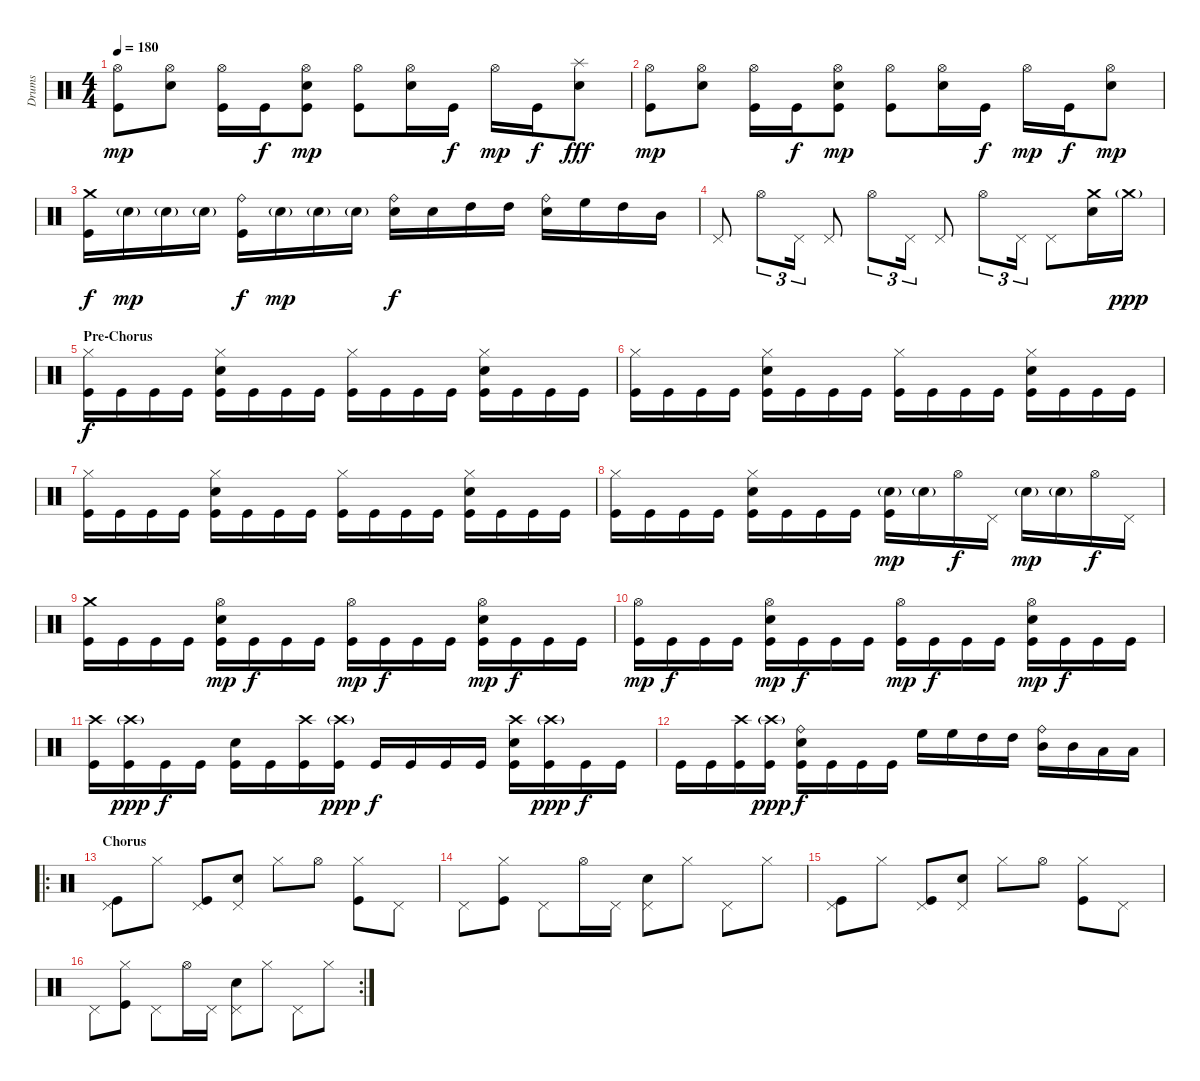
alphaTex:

\track ("Drums" "Drums") {instrument percussion}
\staff {score}
\articulation defaults
\ts (4 4)
\tempo 180
\clef neutral
\ks c
("Hi-Hat (open)" "Kick (hit)").8{dy mp} ("Hi-Hat (open)" "Electric Snare (hit)").8 ("Hi-Hat (open)" "Kick (hit)").16 "Kick (hit)".16{dy f} ("Hi-Hat (open)" "Electric Snare (hit)" "Kick (hit)").8{dy mp} ("Hi-Hat (open)" "Kick (hit)").8 ("Hi-Hat (open)" "Electric Snare (hit)").16 "Kick (hit)".16{dy f} "Hi-Hat (open)".16{dy mp} "Kick (hit)".16{dy f} ("Splash (hit)" "Electric Snare (hit)").8{dy fff} |
("Hi-Hat (open)" "Kick (hit)").8{dy mp} ("Hi-Hat (open)" "Electric Snare (hit)").8 ("Hi-Hat (open)" "Kick (hit)").16 "Kick (hit)".16{dy f} ("Hi-Hat (open)" "Electric Snare (hit)" "Kick (hit)").8{dy mp} ("Hi-Hat (open)" "Kick (hit)").8 ("Hi-Hat (open)" "Electric Snare (hit)").16 "Kick (hit)".16{dy f} "Hi-Hat (open)".16{dy mp} "Kick (hit)".16{dy f} ("Hi-Hat (open)" "Electric Snare (hit)").8{dy mp} |
("Crash medium (hit)" "Kick (hit)").16{dy f} "Electric Snare (hit)"{g}.16{dy mp} "Electric Snare (hit)"{g}.16 "Electric Snare (hit)"{g}.16 ("Ride (bell)" "Kick (hit)").16{dy f} "Electric Snare (hit)"{g}.16{dy mp} "Electric Snare (hit)"{g}.16 "Electric Snare (hit)"{g}.16 ("Ride (bell)" "Electric Snare (hit)").16{dy f} "Electric Snare (hit)".16 "High Tom (hit)".16 "High Tom (hit)".16 ("Ride (bell)" "Electric Snare (hit)").16 "High Floor Tom (hit)".16 "High Tom (hit)".16 "Mid Tom (hit)".16 |
"Pedal Hi-Hat (hit)".8 "Hi-Hat (open)".8{tu (3 2)} "Pedal Hi-Hat (hit)".16{tu (3 2)} "Pedal Hi-Hat (hit)".8 "Hi-Hat (open)".8{tu (3 2)} "Pedal Hi-Hat (hit)".16{tu (3 2)} "Pedal Hi-Hat (hit)".8 "Hi-Hat (open)".8{tu (3 2)} "Pedal Hi-Hat (hit)".16{tu (3 2)} "Pedal Hi-Hat (hit)".8 ("Crash medium (hit)" "Electric Snare (hit)").16 "Crash medium (hit)"{g}.16{dy ppp} |
\section ("" "Pre-Chorus")
("Hi-Hat (closed)" "Kick (hit)").16{dy f} "Kick (hit)".16 "Kick (hit)".16 "Kick (hit)".16 ("Hi-Hat (closed)" "Electric Snare (hit)" "Kick (hit)").16 "Kick (hit)".16 "Kick (hit)".16 "Kick (hit)".16 ("Hi-Hat (closed)" "Kick (hit)").16 "Kick (hit)".16 "Kick (hit)".16 "Kick (hit)".16 ("Hi-Hat (closed)" "Electric Snare (hit)" "Kick (hit)").16 "Kick (hit)".16 "Kick (hit)".16 "Kick (hit)".16 |
("Hi-Hat (closed)" "Kick (hit)").16 "Kick (hit)".16 "Kick (hit)".16 "Kick (hit)".16 ("Hi-Hat (closed)" "Electric Snare (hit)" "Kick (hit)").16 "Kick (hit)".16 "Kick (hit)".16 "Kick (hit)".16 ("Hi-Hat (closed)" "Kick (hit)").16 "Kick (hit)".16 "Kick (hit)".16 "Kick (hit)".16 ("Hi-Hat (closed)" "Electric Snare (hit)" "Kick (hit)").16 "Kick (hit)".16 "Kick (hit)".16 "Kick (hit)".16 |
("Hi-Hat (closed)" "Kick (hit)").16 "Kick (hit)".16 "Kick (hit)".16 "Kick (hit)".16 ("Hi-Hat (closed)" "Electric Snare (hit)" "Kick (hit)").16 "Kick (hit)".16 "Kick (hit)".16 "Kick (hit)".16 ("Hi-Hat (closed)" "Kick (hit)").16 "Kick (hit)".16 "Kick (hit)".16 "Kick (hit)".16 ("Hi-Hat (closed)" "Electric Snare (hit)" "Kick (hit)").16 "Kick (hit)".16 "Kick (hit)".16 "Kick (hit)".16 |
("Hi-Hat (closed)" "Kick (hit)").16 "Kick (hit)".16 "Kick (hit)".16 "Kick (hit)".16 ("Hi-Hat (closed)" "Electric Snare (hit)" "Kick (hit)").16 "Kick (hit)".16 "Kick (hit)".16 "Kick (hit)".16 ("Electric Snare (hit)"{g} "Kick (hit)").16{dy mp} "Electric Snare (hit)"{g}.16 "Hi-Hat (open)".16{dy f} "Pedal Hi-Hat (hit)".16 "Electric Snare (hit)"{g}.16{dy mp} "Electric Snare (hit)"{g}.16 "Hi-Hat (open)".16{dy f} "Pedal Hi-Hat (hit)".16 |
("Crash medium (hit)" "Kick (hit)").16 "Kick (hit)".16 "Kick (hit)".16 "Kick (hit)".16 ("Hi-Hat (open)" "Electric Snare (hit)" "Kick (hit)").16{dy mp} "Kick (hit)".16{dy f} "Kick (hit)".16 "Kick (hit)".16 ("Hi-Hat (open)" "Kick (hit)").16{dy mp} "Kick (hit)".16{dy f} "Kick (hit)".16 "Kick (hit)".16 ("Hi-Hat (open)" "Electric Snare (hit)" "Kick (hit)").16{dy mp} "Kick (hit)".16{dy f} "Kick (hit)".16 "Kick (hit)".16 |
("Hi-Hat (open)" "Kick (hit)").16{dy mp} "Kick (hit)".16{dy f} "Kick (hit)".16 "Kick (hit)".16 ("Hi-Hat (open)" "Electric Snare (hit)" "Kick (hit)").16{dy mp} "Kick (hit)".16{dy f} "Kick (hit)".16 "Kick (hit)".16 ("Hi-Hat (open)" "Kick (hit)").16{dy mp} "Kick (hit)".16{dy f} "Kick (hit)".16 "Kick (hit)".16 ("Hi-Hat (open)" "Electric Snare (hit)" "Kick (hit)").16{dy mp} "Kick (hit)".16{dy f} "Kick (hit)".16 "Kick (hit)".16 |
("Crash high (hit)" "Kick (hit)").16 ("Crash high (hit)"{g} "Kick (hit)").16{dy ppp} "Kick (hit)".16{dy f} "Kick (hit)".16 ("Electric Snare (hit)" "Kick (hit)").16 "Kick (hit)".16 ("Crash high (hit)" "Kick (hit)").16 ("Crash high (hit)"{g} "Kick (hit)").16{dy ppp} "Kick (hit)".16{dy f} "Kick (hit)".16 "Kick (hit)".16 "Kick (hit)".16 ("Crash high (hit)" "Electric Snare (hit)" "Kick (hit)").16 ("Crash high (hit)"{g} "Kick (hit)").16{dy ppp} "Kick (hit)".16{dy f} "Kick (hit)".16 |
"Kick (hit)".16 "Kick (hit)".16 ("Crash high (hit)" "Kick (hit)").16 ("Crash high (hit)"{g} "Kick (hit)").16{dy ppp} ("Ride (bell)" "Electric Snare (hit)" "Kick (hit)").16{dy f} "Kick (hit)".16 "Kick (hit)".16 "Kick (hit)".16 "High Floor Tom (hit)".16 "High Floor Tom (hit)".16 "High Tom (hit)".16 "High Tom (hit)".16 ("Ride (bell)" "Mid Tom (hit)").16 "Mid Tom (hit)".16 "Low Tom (hit)".16 "Low Tom (hit)".16 |
\ro
\section ("" "Chorus")
("Pedal Hi-Hat (hit)" "Kick (hit)").8 "Hi-Hat (closed)".8 ("Pedal Hi-Hat (hit)" "Kick (hit)").8 ("Pedal Hi-Hat (hit)" "Electric Snare (hit)").8 "Hi-Hat (closed)".8 "Hi-Hat (open)".8 ("Hi-Hat (closed)" "Kick (hit)").8 "Pedal Hi-Hat (hit)".8 |
"Pedal Hi-Hat (hit)".8 ("Hi-Hat (closed)" "Kick (hit)").8 "Pedal Hi-Hat (hit)".8 "Hi-Hat (open)".16 "Pedal Hi-Hat (hit)".16 ("Pedal Hi-Hat (hit)" "Electric Snare (hit)").8 "Hi-Hat (closed)".8 "Pedal Hi-Hat (hit)".8 "Hi-Hat (closed)".8 |
("Pedal Hi-Hat (hit)" "Kick (hit)").8 "Hi-Hat (closed)".8 ("Pedal Hi-Hat (hit)" "Kick (hit)").8 ("Pedal Hi-Hat (hit)" "Electric Snare (hit)").8 "Hi-Hat (closed)".8 "Hi-Hat (open)".8 ("Hi-Hat (closed)" "Kick (hit)").8 "Pedal Hi-Hat (hit)".8 |
\rc 2 "Pedal Hi-Hat (hit)".8
("Hi-Hat (closed)" "Kick (hit)").8 "Pedal Hi-Hat (hit)".8 "Hi-Hat (open)".16 "Pedal Hi-Hat (hit)".16 ("Pedal Hi-Hat (hit)" "Electric Snare (hit)").8 "Hi-Hat (closed)".8 "Pedal Hi-Hat (hit)".8 "Hi-Hat (closed)".8
